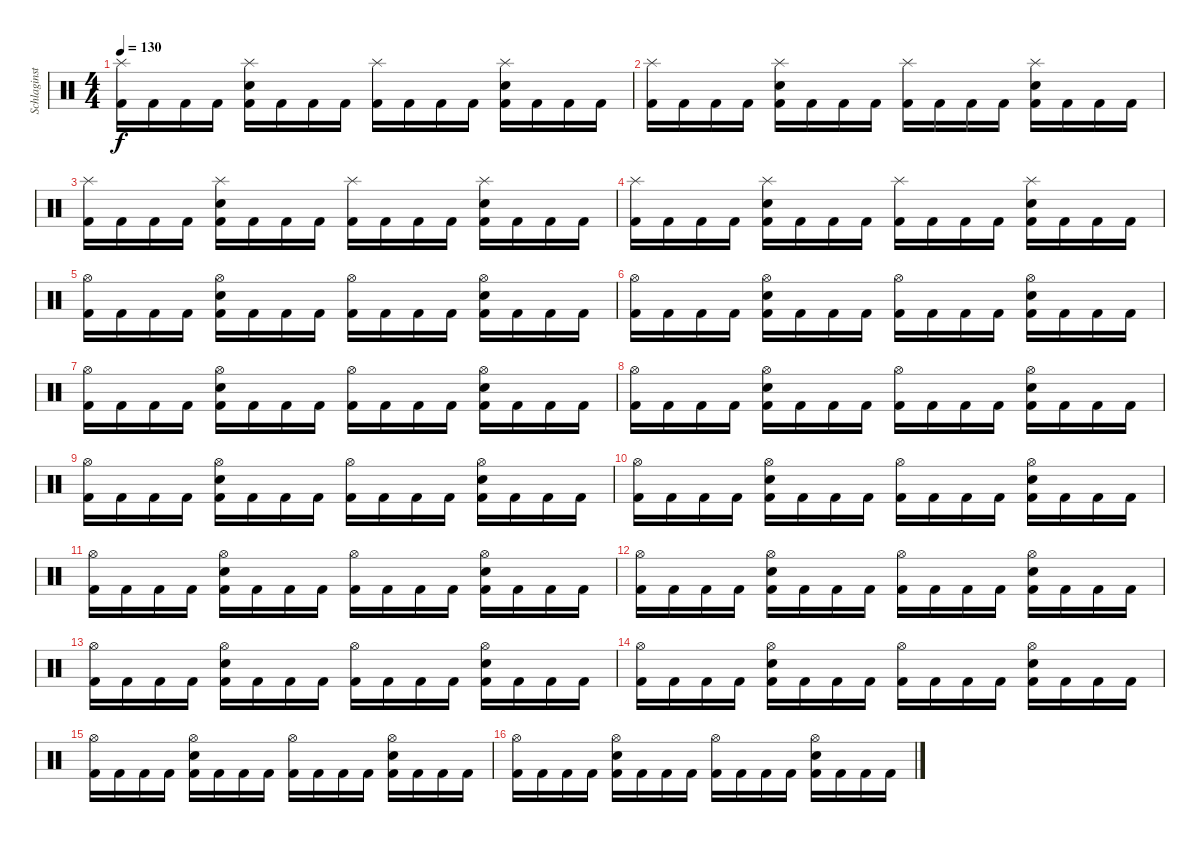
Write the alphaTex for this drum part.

\track ("Schlaginstrumente - Auswahl" "Schlaginst") {instrument percussion}
\staff {score}
\articulation defaults
\ts (4 4)
\tempo 130
\clef neutral
\ks c
("Splash (hit)" "Kick (hit) 2").16{dy f} "Kick (hit) 2".16 "Kick (hit) 2".16 "Kick (hit) 2".16 ("Splash (hit)" "Snare (hit) 2" "Kick (hit) 2").16 "Kick (hit) 2".16 "Kick (hit) 2".16 "Kick (hit) 2".16 ("Splash (hit)" "Kick (hit) 2").16 "Kick (hit) 2".16 "Kick (hit) 2".16 "Kick (hit) 2".16 ("Splash (hit)" "Snare (hit) 2" "Kick (hit) 2").16 "Kick (hit) 2".16 "Kick (hit) 2".16 "Kick (hit) 2".16 |
("Splash (hit)" "Kick (hit) 2").16 "Kick (hit) 2".16 "Kick (hit) 2".16 "Kick (hit) 2".16 ("Splash (hit)" "Snare (hit) 2" "Kick (hit) 2").16 "Kick (hit) 2".16 "Kick (hit) 2".16 "Kick (hit) 2".16 ("Splash (hit)" "Kick (hit) 2").16 "Kick (hit) 2".16 "Kick (hit) 2".16 "Kick (hit) 2".16 ("Splash (hit)" "Snare (hit) 2" "Kick (hit) 2").16 "Kick (hit) 2".16 "Kick (hit) 2".16 "Kick (hit) 2".16 |
("Splash (hit)" "Kick (hit) 2").16 "Kick (hit) 2".16 "Kick (hit) 2".16 "Kick (hit) 2".16 ("Splash (hit)" "Snare (hit) 2" "Kick (hit) 2").16 "Kick (hit) 2".16 "Kick (hit) 2".16 "Kick (hit) 2".16 ("Splash (hit)" "Kick (hit) 2").16 "Kick (hit) 2".16 "Kick (hit) 2".16 "Kick (hit) 2".16 ("Splash (hit)" "Snare (hit) 2" "Kick (hit) 2").16 "Kick (hit) 2".16 "Kick (hit) 2".16 "Kick (hit) 2".16 |
("Splash (hit)" "Kick (hit) 2").16 "Kick (hit) 2".16 "Kick (hit) 2".16 "Kick (hit) 2".16 ("Splash (hit)" "Snare (hit) 2" "Kick (hit) 2").16 "Kick (hit) 2".16 "Kick (hit) 2".16 "Kick (hit) 2".16 ("Splash (hit)" "Kick (hit) 2").16 "Kick (hit) 2".16 "Kick (hit) 2".16 "Kick (hit) 2".16 ("Splash (hit)" "Snare (hit) 2" "Kick (hit) 2").16 "Kick (hit) 2".16 "Kick (hit) 2".16 "Kick (hit) 2".16 |
("Hi-Hat (open)" "Kick (hit) 2").16 "Kick (hit) 2".16 "Kick (hit) 2".16 "Kick (hit) 2".16 ("Hi-Hat (open)" "Snare (hit) 2" "Kick (hit) 2").16 "Kick (hit) 2".16 "Kick (hit) 2".16 "Kick (hit) 2".16 ("Hi-Hat (open)" "Kick (hit) 2").16 "Kick (hit) 2".16 "Kick (hit) 2".16 "Kick (hit) 2".16 ("Hi-Hat (open)" "Snare (hit) 2" "Kick (hit) 2").16 "Kick (hit) 2".16 "Kick (hit) 2".16 "Kick (hit) 2".16 |
("Hi-Hat (open)" "Kick (hit) 2").16 "Kick (hit) 2".16 "Kick (hit) 2".16 "Kick (hit) 2".16 ("Hi-Hat (open)" "Snare (hit) 2" "Kick (hit) 2").16 "Kick (hit) 2".16 "Kick (hit) 2".16 "Kick (hit) 2".16 ("Hi-Hat (open)" "Kick (hit) 2").16 "Kick (hit) 2".16 "Kick (hit) 2".16 "Kick (hit) 2".16 ("Hi-Hat (open)" "Snare (hit) 2" "Kick (hit) 2").16 "Kick (hit) 2".16 "Kick (hit) 2".16 "Kick (hit) 2".16 |
("Hi-Hat (open)" "Kick (hit) 2").16 "Kick (hit) 2".16 "Kick (hit) 2".16 "Kick (hit) 2".16 ("Hi-Hat (open)" "Snare (hit) 2" "Kick (hit) 2").16 "Kick (hit) 2".16 "Kick (hit) 2".16 "Kick (hit) 2".16 ("Hi-Hat (open)" "Kick (hit) 2").16 "Kick (hit) 2".16 "Kick (hit) 2".16 "Kick (hit) 2".16 ("Hi-Hat (open)" "Snare (hit) 2" "Kick (hit) 2").16 "Kick (hit) 2".16 "Kick (hit) 2".16 "Kick (hit) 2".16 |
("Hi-Hat (open)" "Kick (hit) 2").16 "Kick (hit) 2".16 "Kick (hit) 2".16 "Kick (hit) 2".16 ("Hi-Hat (open)" "Snare (hit) 2" "Kick (hit) 2").16 "Kick (hit) 2".16 "Kick (hit) 2".16 "Kick (hit) 2".16 ("Hi-Hat (open)" "Kick (hit) 2").16 "Kick (hit) 2".16 "Kick (hit) 2".16 "Kick (hit) 2".16 ("Hi-Hat (open)" "Snare (hit) 2" "Kick (hit) 2").16 "Kick (hit) 2".16 "Kick (hit) 2".16 "Kick (hit) 2".16 |
("Hi-Hat (open)" "Kick (hit) 2").16 "Kick (hit) 2".16 "Kick (hit) 2".16 "Kick (hit) 2".16 ("Hi-Hat (open)" "Snare (hit) 2" "Kick (hit) 2").16 "Kick (hit) 2".16 "Kick (hit) 2".16 "Kick (hit) 2".16 ("Hi-Hat (open)" "Kick (hit) 2").16 "Kick (hit) 2".16 "Kick (hit) 2".16 "Kick (hit) 2".16 ("Hi-Hat (open)" "Snare (hit) 2" "Kick (hit) 2").16 "Kick (hit) 2".16 "Kick (hit) 2".16 "Kick (hit) 2".16 |
("Hi-Hat (open)" "Kick (hit) 2").16 "Kick (hit) 2".16 "Kick (hit) 2".16 "Kick (hit) 2".16 ("Hi-Hat (open)" "Snare (hit) 2" "Kick (hit) 2").16 "Kick (hit) 2".16 "Kick (hit) 2".16 "Kick (hit) 2".16 ("Hi-Hat (open)" "Kick (hit) 2").16 "Kick (hit) 2".16 "Kick (hit) 2".16 "Kick (hit) 2".16 ("Hi-Hat (open)" "Snare (hit) 2" "Kick (hit) 2").16 "Kick (hit) 2".16 "Kick (hit) 2".16 "Kick (hit) 2".16 |
("Hi-Hat (open)" "Kick (hit) 2").16 "Kick (hit) 2".16 "Kick (hit) 2".16 "Kick (hit) 2".16 ("Hi-Hat (open)" "Snare (hit) 2" "Kick (hit) 2").16 "Kick (hit) 2".16 "Kick (hit) 2".16 "Kick (hit) 2".16 ("Hi-Hat (open)" "Kick (hit) 2").16 "Kick (hit) 2".16 "Kick (hit) 2".16 "Kick (hit) 2".16 ("Hi-Hat (open)" "Snare (hit) 2" "Kick (hit) 2").16 "Kick (hit) 2".16 "Kick (hit) 2".16 "Kick (hit) 2".16 |
("Hi-Hat (open)" "Kick (hit) 2").16 "Kick (hit) 2".16 "Kick (hit) 2".16 "Kick (hit) 2".16 ("Hi-Hat (open)" "Snare (hit) 2" "Kick (hit) 2").16 "Kick (hit) 2".16 "Kick (hit) 2".16 "Kick (hit) 2".16 ("Hi-Hat (open)" "Kick (hit) 2").16 "Kick (hit) 2".16 "Kick (hit) 2".16 "Kick (hit) 2".16 ("Hi-Hat (open)" "Snare (hit) 2" "Kick (hit) 2").16 "Kick (hit) 2".16 "Kick (hit) 2".16 "Kick (hit) 2".16 |
("Hi-Hat (open)" "Kick (hit) 2").16 "Kick (hit) 2".16 "Kick (hit) 2".16 "Kick (hit) 2".16 ("Hi-Hat (open)" "Snare (hit) 2" "Kick (hit) 2").16 "Kick (hit) 2".16 "Kick (hit) 2".16 "Kick (hit) 2".16 ("Hi-Hat (open)" "Kick (hit) 2").16 "Kick (hit) 2".16 "Kick (hit) 2".16 "Kick (hit) 2".16 ("Hi-Hat (open)" "Snare (hit) 2" "Kick (hit) 2").16 "Kick (hit) 2".16 "Kick (hit) 2".16 "Kick (hit) 2".16 |
("Hi-Hat (open)" "Kick (hit) 2").16 "Kick (hit) 2".16 "Kick (hit) 2".16 "Kick (hit) 2".16 ("Hi-Hat (open)" "Snare (hit) 2" "Kick (hit) 2").16 "Kick (hit) 2".16 "Kick (hit) 2".16 "Kick (hit) 2".16 ("Hi-Hat (open)" "Kick (hit) 2").16 "Kick (hit) 2".16 "Kick (hit) 2".16 "Kick (hit) 2".16 ("Hi-Hat (open)" "Snare (hit) 2" "Kick (hit) 2").16 "Kick (hit) 2".16 "Kick (hit) 2".16 "Kick (hit) 2".16 |
("Hi-Hat (open)" "Kick (hit) 2").16 "Kick (hit) 2".16 "Kick (hit) 2".16 "Kick (hit) 2".16 ("Hi-Hat (open)" "Snare (hit) 2" "Kick (hit) 2").16 "Kick (hit) 2".16 "Kick (hit) 2".16 "Kick (hit) 2".16 ("Hi-Hat (open)" "Kick (hit) 2").16 "Kick (hit) 2".16 "Kick (hit) 2".16 "Kick (hit) 2".16 ("Hi-Hat (open)" "Snare (hit) 2" "Kick (hit) 2").16 "Kick (hit) 2".16 "Kick (hit) 2".16 "Kick (hit) 2".16 |
("Hi-Hat (open)" "Kick (hit) 2").16 "Kick (hit) 2".16 "Kick (hit) 2".16 "Kick (hit) 2".16 ("Hi-Hat (open)" "Snare (hit) 2" "Kick (hit) 2").16 "Kick (hit) 2".16 "Kick (hit) 2".16 "Kick (hit) 2".16 ("Hi-Hat (open)" "Kick (hit) 2").16 "Kick (hit) 2".16 "Kick (hit) 2".16 "Kick (hit) 2".16 ("Hi-Hat (open)" "Snare (hit) 2" "Kick (hit) 2").16 "Kick (hit) 2".16 "Kick (hit) 2".16 "Kick (hit) 2".16
